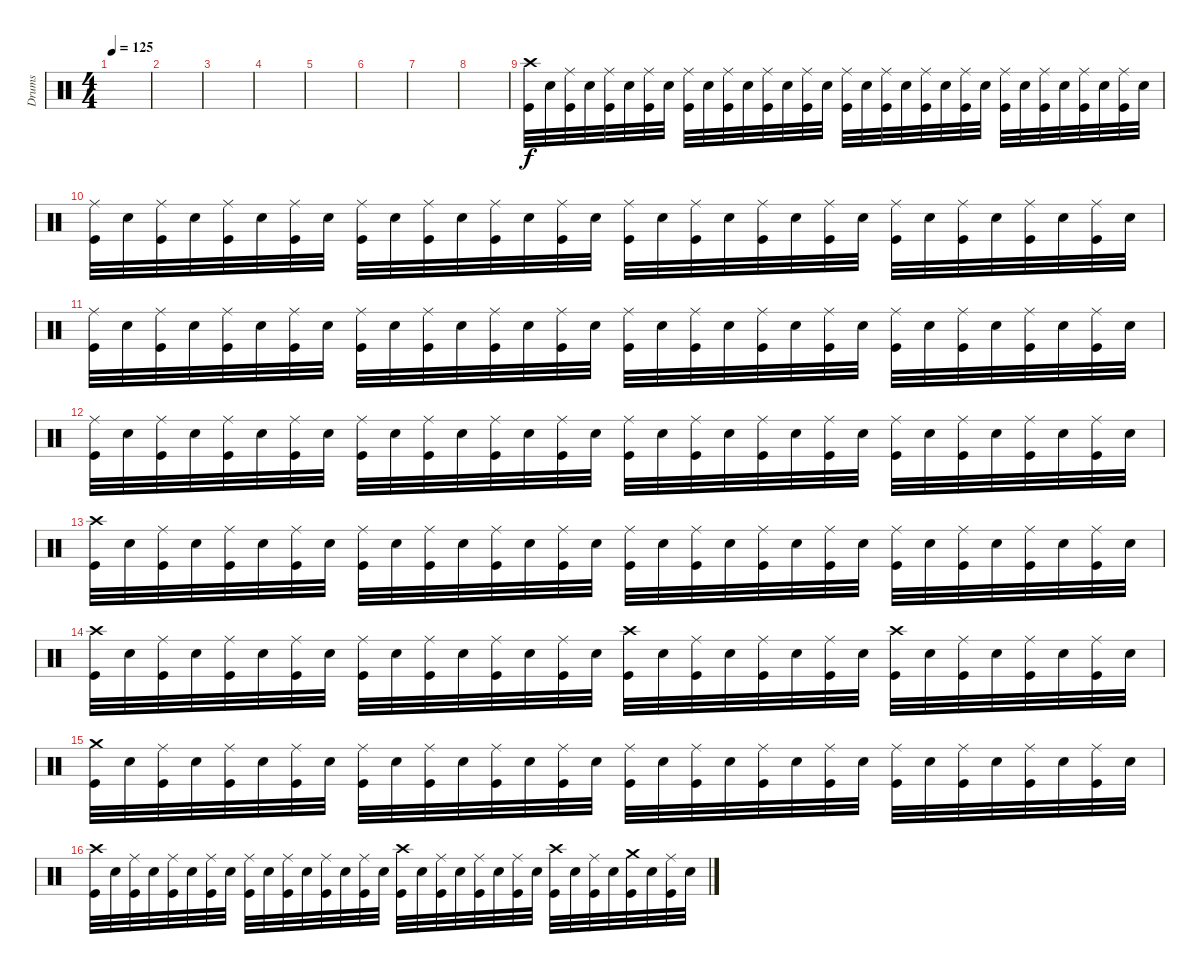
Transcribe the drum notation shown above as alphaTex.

\track ("Drums" "Drums") {instrument percussion}
\staff {score}
\articulation defaults
\ts (4 4)
\tempo 125
\clef neutral
\ks c
|
|
|
|
|
|
|
|
("Crash high (hit)" "Kick (hit)").32 "Electric Snare (hit)".32 ("Ride (middle)" "Kick (hit)").32 "Electric Snare (hit)".32 ("Ride (middle)" "Kick (hit)").32 "Electric Snare (hit)".32 ("Ride (middle)" "Kick (hit)").32 "Electric Snare (hit)".32 ("Ride (middle)" "Kick (hit)").32 "Electric Snare (hit)".32 ("Ride (middle)" "Kick (hit)").32 "Electric Snare (hit)".32 ("Ride (middle)" "Kick (hit)").32 "Electric Snare (hit)".32 ("Ride (middle)" "Kick (hit)").32 "Electric Snare (hit)".32 ("Ride (middle)" "Kick (hit)").32 "Electric Snare (hit)".32 ("Ride (middle)" "Kick (hit)").32 "Electric Snare (hit)".32 ("Ride (middle)" "Kick (hit)").32 "Electric Snare (hit)".32 ("Ride (middle)" "Kick (hit)").32 "Electric Snare (hit)".32 ("Ride (middle)" "Kick (hit)").32 "Electric Snare (hit)".32 ("Ride (middle)" "Kick (hit)").32 "Electric Snare (hit)".32 ("Ride (middle)" "Kick (hit)").32 "Electric Snare (hit)".32 ("Ride (middle)" "Kick (hit)").32 "Electric Snare (hit)".32 |
("Ride (middle)" "Kick (hit)").32 "Electric Snare (hit)".32 ("Ride (middle)" "Kick (hit)").32 "Electric Snare (hit)".32 ("Ride (middle)" "Kick (hit)").32 "Electric Snare (hit)".32 ("Ride (middle)" "Kick (hit)").32 "Electric Snare (hit)".32 ("Ride (middle)" "Kick (hit)").32 "Electric Snare (hit)".32 ("Ride (middle)" "Kick (hit)").32 "Electric Snare (hit)".32 ("Ride (middle)" "Kick (hit)").32 "Electric Snare (hit)".32 ("Ride (middle)" "Kick (hit)").32 "Electric Snare (hit)".32 ("Ride (middle)" "Kick (hit)").32 "Electric Snare (hit)".32 ("Ride (middle)" "Kick (hit)").32 "Electric Snare (hit)".32 ("Ride (middle)" "Kick (hit)").32 "Electric Snare (hit)".32 ("Ride (middle)" "Kick (hit)").32 "Electric Snare (hit)".32 ("Ride (middle)" "Kick (hit)").32 "Electric Snare (hit)".32 ("Ride (middle)" "Kick (hit)").32 "Electric Snare (hit)".32 ("Ride (middle)" "Kick (hit)").32 "Electric Snare (hit)".32 ("Ride (middle)" "Kick (hit)").32 "Electric Snare (hit)".32 |
("Ride (middle)" "Kick (hit)").32 "Electric Snare (hit)".32 ("Ride (middle)" "Kick (hit)").32 "Electric Snare (hit)".32 ("Ride (middle)" "Kick (hit)").32 "Electric Snare (hit)".32 ("Ride (middle)" "Kick (hit)").32 "Electric Snare (hit)".32 ("Ride (middle)" "Kick (hit)").32 "Electric Snare (hit)".32 ("Ride (middle)" "Kick (hit)").32 "Electric Snare (hit)".32 ("Ride (middle)" "Kick (hit)").32 "Electric Snare (hit)".32 ("Ride (middle)" "Kick (hit)").32 "Electric Snare (hit)".32 ("Ride (middle)" "Kick (hit)").32 "Electric Snare (hit)".32 ("Ride (middle)" "Kick (hit)").32 "Electric Snare (hit)".32 ("Ride (middle)" "Kick (hit)").32 "Electric Snare (hit)".32 ("Ride (middle)" "Kick (hit)").32 "Electric Snare (hit)".32 ("Ride (middle)" "Kick (hit)").32 "Electric Snare (hit)".32 ("Ride (middle)" "Kick (hit)").32 "Electric Snare (hit)".32 ("Ride (middle)" "Kick (hit)").32 "Electric Snare (hit)".32 ("Ride (middle)" "Kick (hit)").32 "Electric Snare (hit)".32 |
("Ride (middle)" "Kick (hit)").32 "Electric Snare (hit)".32 ("Ride (middle)" "Kick (hit)").32 "Electric Snare (hit)".32 ("Ride (middle)" "Kick (hit)").32 "Electric Snare (hit)".32 ("Ride (middle)" "Kick (hit)").32 "Electric Snare (hit)".32 ("Ride (middle)" "Kick (hit)").32 "Electric Snare (hit)".32 ("Ride (middle)" "Kick (hit)").32 "Electric Snare (hit)".32 ("Ride (middle)" "Kick (hit)").32 "Electric Snare (hit)".32 ("Ride (middle)" "Kick (hit)").32 "Electric Snare (hit)".32 ("Ride (middle)" "Kick (hit)").32 "Electric Snare (hit)".32 ("Ride (middle)" "Kick (hit)").32 "Electric Snare (hit)".32 ("Ride (middle)" "Kick (hit)").32 "Electric Snare (hit)".32 ("Ride (middle)" "Kick (hit)").32 "Electric Snare (hit)".32 ("Ride (middle)" "Kick (hit)").32 "Electric Snare (hit)".32 ("Ride (middle)" "Kick (hit)").32 "Electric Snare (hit)".32 ("Ride (middle)" "Kick (hit)").32 "Electric Snare (hit)".32 ("Ride (middle)" "Kick (hit)").32 "Electric Snare (hit)".32 |
("Crash high (hit)" "Kick (hit)").32 "Electric Snare (hit)".32 ("Ride (middle)" "Kick (hit)").32 "Electric Snare (hit)".32 ("Ride (middle)" "Kick (hit)").32 "Electric Snare (hit)".32 ("Ride (middle)" "Kick (hit)").32 "Electric Snare (hit)".32 ("Ride (middle)" "Kick (hit)").32 "Electric Snare (hit)".32 ("Ride (middle)" "Kick (hit)").32 "Electric Snare (hit)".32 ("Ride (middle)" "Kick (hit)").32 "Electric Snare (hit)".32 ("Ride (middle)" "Kick (hit)").32 "Electric Snare (hit)".32 ("Ride (middle)" "Kick (hit)").32 "Electric Snare (hit)".32 ("Ride (middle)" "Kick (hit)").32 "Electric Snare (hit)".32 ("Ride (middle)" "Kick (hit)").32 "Electric Snare (hit)".32 ("Ride (middle)" "Kick (hit)").32 "Electric Snare (hit)".32 ("Ride (middle)" "Kick (hit)").32 "Electric Snare (hit)".32 ("Ride (middle)" "Kick (hit)").32 "Electric Snare (hit)".32 ("Ride (middle)" "Kick (hit)").32 "Electric Snare (hit)".32 ("Ride (middle)" "Kick (hit)").32 "Electric Snare (hit)".32 |
("Crash high (hit)" "Kick (hit)").32 "Electric Snare (hit)".32 ("Ride (middle)" "Kick (hit)").32 "Electric Snare (hit)".32 ("Ride (middle)" "Kick (hit)").32 "Electric Snare (hit)".32 ("Ride (middle)" "Kick (hit)").32 "Electric Snare (hit)".32 ("Ride (middle)" "Kick (hit)").32 "Electric Snare (hit)".32 ("Ride (middle)" "Kick (hit)").32 "Electric Snare (hit)".32 ("Ride (middle)" "Kick (hit)").32 "Electric Snare (hit)".32 ("Ride (middle)" "Kick (hit)").32 "Electric Snare (hit)".32 ("Crash high (hit)" "Kick (hit)").32 "Electric Snare (hit)".32 ("Ride (middle)" "Kick (hit)").32 "Electric Snare (hit)".32 ("Ride (middle)" "Kick (hit)").32 "Electric Snare (hit)".32 ("Ride (middle)" "Kick (hit)").32 "Electric Snare (hit)".32 ("Crash high (hit)" "Kick (hit)").32 "Electric Snare (hit)".32 ("Ride (middle)" "Kick (hit)").32 "Electric Snare (hit)".32 ("Ride (middle)" "Kick (hit)").32 "Electric Snare (hit)".32 ("Ride (middle)" "Kick (hit)").32 "Electric Snare (hit)".32 |
("Crash medium (hit)" "Kick (hit)").32 "Electric Snare (hit)".32 ("Ride (middle)" "Kick (hit)").32 "Electric Snare (hit)".32 ("Ride (middle)" "Kick (hit)").32 "Electric Snare (hit)".32 ("Ride (middle)" "Kick (hit)").32 "Electric Snare (hit)".32 ("Ride (middle)" "Kick (hit)").32 "Electric Snare (hit)".32 ("Ride (middle)" "Kick (hit)").32 "Electric Snare (hit)".32 ("Ride (middle)" "Kick (hit)").32 "Electric Snare (hit)".32 ("Ride (middle)" "Kick (hit)").32 "Electric Snare (hit)".32 ("Ride (middle)" "Kick (hit)").32 "Electric Snare (hit)".32 ("Ride (middle)" "Kick (hit)").32 "Electric Snare (hit)".32 ("Ride (middle)" "Kick (hit)").32 "Electric Snare (hit)".32 ("Ride (middle)" "Kick (hit)").32 "Electric Snare (hit)".32 ("Ride (middle)" "Kick (hit)").32 "Electric Snare (hit)".32 ("Ride (middle)" "Kick (hit)").32 "Electric Snare (hit)".32 ("Ride (middle)" "Kick (hit)").32 "Electric Snare (hit)".32 ("Ride (middle)" "Kick (hit)").32 "Electric Snare (hit)".32 |
("Crash high (hit)" "Kick (hit)").32 "Electric Snare (hit)".32 ("Ride (middle)" "Kick (hit)").32 "Electric Snare (hit)".32 ("Ride (middle)" "Kick (hit)").32 "Electric Snare (hit)".32 ("Ride (middle)" "Kick (hit)").32 "Electric Snare (hit)".32 ("Ride (middle)" "Kick (hit)").32 "Electric Snare (hit)".32 ("Ride (middle)" "Kick (hit)").32 "Electric Snare (hit)".32 ("Ride (middle)" "Kick (hit)").32 "Electric Snare (hit)".32 ("Ride (middle)" "Kick (hit)").32 "Electric Snare (hit)".32 ("Crash high (hit)" "Kick (hit)").32 "Electric Snare (hit)".32 ("Ride (middle)" "Kick (hit)").32 "Electric Snare (hit)".32 ("Ride (middle)" "Kick (hit)").32 "Electric Snare (hit)".32 ("Ride (middle)" "Kick (hit)").32 "Electric Snare (hit)".32 ("Crash high (hit)" "Kick (hit)").32 "Electric Snare (hit)".32 ("Ride (middle)" "Kick (hit)").32 "Electric Snare (hit)".32 ("Crash medium (hit)" "Kick (hit)").32 "Electric Snare (hit)".32 ("Ride (middle)" "Kick (hit)").32 "Electric Snare (hit)".32
